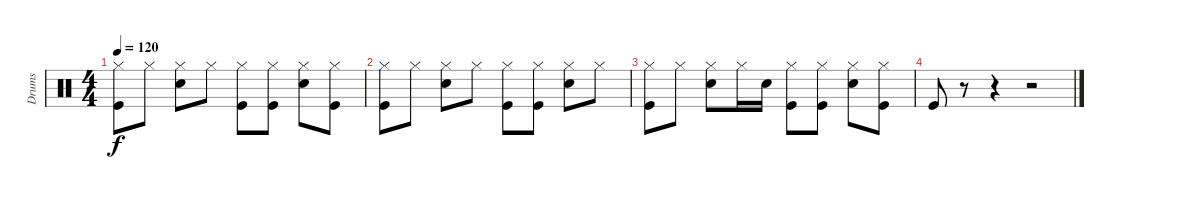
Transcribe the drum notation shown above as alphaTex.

\track ("Drums" "Drums") {instrument percussion}
\staff {score}
\articulation defaults
\ts (4 4)
\tempo 120
\clef neutral
\ks c
("Hi-Hat (closed)" "Kick (hit)").8{dy f} "Hi-Hat (closed)".8 ("Hi-Hat (closed)" "Snare (hit) 2").8 "Hi-Hat (closed)".8 ("Hi-Hat (closed)" "Kick (hit)").8 ("Hi-Hat (closed)" "Kick (hit)").8 ("Hi-Hat (closed)" "Snare (hit) 2").8 ("Hi-Hat (closed)" "Kick (hit)").8 |
("Hi-Hat (closed)" "Kick (hit)").8 "Hi-Hat (closed)".8 ("Hi-Hat (closed)" "Snare (hit) 2").8 "Hi-Hat (closed)".8 ("Hi-Hat (closed)" "Kick (hit)").8 ("Hi-Hat (closed)" "Kick (hit)").8 ("Hi-Hat (closed)" "Snare (hit) 2").8 "Hi-Hat (closed)".8 |
("Hi-Hat (closed)" "Kick (hit)").8 "Hi-Hat (closed)".8 ("Hi-Hat (closed)" "Snare (hit) 2").8 "Hi-Hat (closed)".16 "Snare (hit) 2".16 ("Hi-Hat (closed)" "Kick (hit)").8 ("Hi-Hat (closed)" "Kick (hit)").8 ("Hi-Hat (closed)" "Snare (hit) 2").8 ("Hi-Hat (closed)" "Kick (hit)").8 |
"Kick (hit)".8 r.8 r.4 r.2
